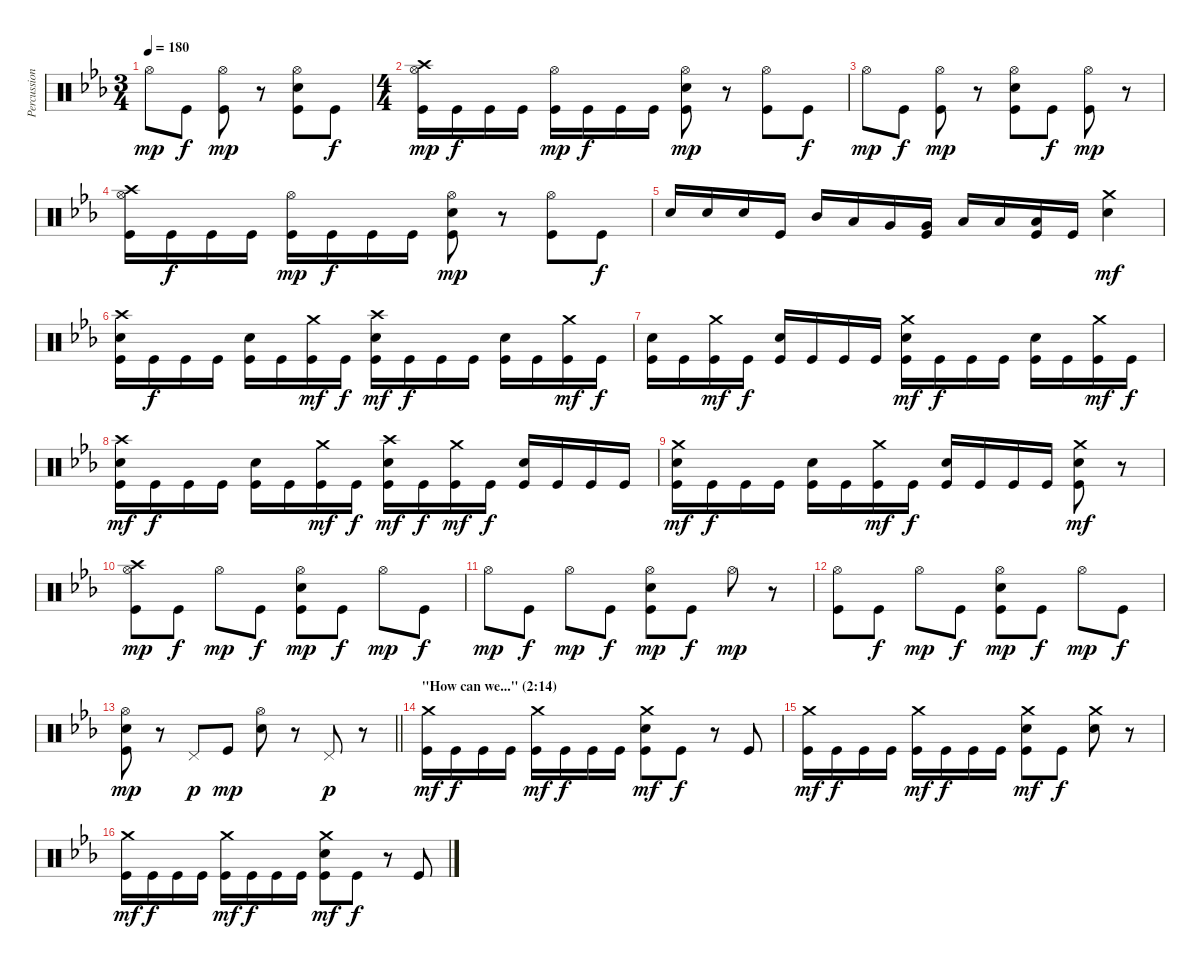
\track ("Percussion" "Percussion") {instrument percussion}
\staff {score}
\articulation defaults
\ts (3 4)
\tempo 180
\clef neutral
\ks cminor "Hi-Hat (open)".8{dy mp} "Kick (hit)".8{dy f}
("Hi-Hat (open)" "Kick (hit)").8{dy mp} r.8 ("Hi-Hat (open)" "Snare (hit) 2" "Kick (hit)").8 "Kick (hit)".8{dy f} |
\ts (4 4)
("Crash high (hit)" "Hi-Hat (open)" "Kick (hit)").16{dy mp} "Kick (hit)".16{dy f} "Kick (hit)".16 "Kick (hit)".16 ("Hi-Hat (open)" "Kick (hit)").16{dy mp} "Kick (hit)".16{dy f} "Kick (hit)".16 "Kick (hit)".16 ("Hi-Hat (open)" "Snare (hit) 2" "Kick (hit)").8{dy mp} r.8 ("Hi-Hat (open)" "Kick (hit)").8 "Kick (hit)".8{dy f} |
"Hi-Hat (open)".8{dy mp} "Kick (hit)".8{dy f} ("Hi-Hat (open)" "Kick (hit)").8{dy mp} r.8 ("Hi-Hat (open)" "Snare (hit) 2" "Kick (hit)").8 "Kick (hit)".8{dy f} ("Hi-Hat (open)" "Kick (hit)").8{dy mp} r.8 |
("Crash high (hit)" "Hi-Hat (open)" "Kick (hit)").16 "Kick (hit)".16{dy f} "Kick (hit)".16 "Kick (hit)".16 ("Hi-Hat (open)" "Kick (hit)").16{dy mp} "Kick (hit)".16{dy f} "Kick (hit)".16 "Kick (hit)".16 ("Hi-Hat (open)" "Snare (hit) 2" "Kick (hit)").8{dy mp} r.8 ("Hi-Hat (open)" "Kick (hit)").8 "Kick (hit)".8{dy f} |
"Snare (hit) 2".16 "Snare (hit) 2".16 "Snare (hit) 2".16 "Kick (hit)".16 "Mid Tom (hit)".16 "Low Tom (hit)".16 "Very Low Tom (hit)".16 ("Very Low Tom (hit)" "Kick (hit)").16 "Low Floor Tom (hit)".16 "Low Floor Tom (hit)".16 ("Low Floor Tom (hit)" "Kick (hit)").16 "Kick (hit)".16 ("Crash medium (hit)" "Snare (hit) 2").4{dy mf} |
("Crash high (hit)" "Snare (hit) 2" "Kick (hit)").16 "Kick (hit)".16{dy f} "Kick (hit)".16 "Kick (hit)".16 ("Snare (hit) 2" "Kick (hit)").16 "Kick (hit)".16 ("Crash medium (hit)" "Kick (hit)").16{dy mf} "Kick (hit)".16{dy f} ("Crash high (hit)" "Snare (hit) 2" "Kick (hit)").16{dy mf} "Kick (hit)".16{dy f} "Kick (hit)".16 "Kick (hit)".16 ("Snare (hit) 2" "Kick (hit)").16 "Kick (hit)".16 ("Crash medium (hit)" "Kick (hit)").16{dy mf} "Kick (hit)".16{dy f} |
("Snare (hit) 2" "Kick (hit)").16 "Kick (hit)".16 ("Crash medium (hit)" "Kick (hit)").16{dy mf} "Kick (hit)".16{dy f} ("Snare (hit) 2" "Kick (hit)").16 "Kick (hit)".16 "Kick (hit)".16 "Kick (hit)".16 ("Crash medium (hit)" "Snare (hit) 2" "Kick (hit)").16{dy mf} "Kick (hit)".16{dy f} "Kick (hit)".16 "Kick (hit)".16 ("Snare (hit) 2" "Kick (hit)").16 "Kick (hit)".16 ("Crash medium (hit)" "Kick (hit)").16{dy mf} "Kick (hit)".16{dy f} |
("Crash high (hit)" "Snare (hit) 2" "Kick (hit)").16{dy mf} "Kick (hit)".16{dy f} "Kick (hit)".16 "Kick (hit)".16 ("Snare (hit) 2" "Kick (hit)").16 "Kick (hit)".16 ("Crash medium (hit)" "Kick (hit)").16{dy mf} "Kick (hit)".16{dy f} ("Crash high (hit)" "Snare (hit) 2" "Kick (hit)").16{dy mf} "Kick (hit)".16{dy f} ("Crash medium (hit)" "Kick (hit)").16{dy mf} "Kick (hit)".16{dy f} ("Snare (hit) 2" "Kick (hit)").16 "Kick (hit)".16 "Kick (hit)".16 "Kick (hit)".16 |
("Crash medium (hit)" "Snare (hit) 2" "Kick (hit)").16{dy mf} "Kick (hit)".16{dy f} "Kick (hit)".16 "Kick (hit)".16 ("Snare (hit) 2" "Kick (hit)").16 "Kick (hit)".16 ("Crash medium (hit)" "Kick (hit)").16{dy mf} "Kick (hit)".16{dy f} ("Snare (hit) 2" "Kick (hit)").16 "Kick (hit)".16 "Kick (hit)".16 "Kick (hit)".16 ("Crash medium (hit)" "Snare (hit) 2" "Kick (hit)").8{dy mf} r.8 |
("Crash high (hit)" "Hi-Hat (open)" "Kick (hit)").8{dy mp} "Kick (hit)".8{dy f} "Hi-Hat (open)".8{dy mp} "Kick (hit)".8{dy f} ("Hi-Hat (open)" "Snare (hit) 2" "Kick (hit)").8{dy mp} "Kick (hit)".8{dy f} "Hi-Hat (open)".8{dy mp} "Kick (hit)".8{dy f} |
"Hi-Hat (open)".8{dy mp} "Kick (hit)".8{dy f} "Hi-Hat (open)".8{dy mp} "Kick (hit)".8{dy f} ("Hi-Hat (open)" "Snare (hit) 2" "Kick (hit)").8{dy mp} "Kick (hit)".8{dy f} "Hi-Hat (open)".8{dy mp} r.8 |
("Hi-Hat (open)" "Kick (hit)").8 "Kick (hit)".8{dy f} "Hi-Hat (open)".8{dy mp} "Kick (hit)".8{dy f} ("Hi-Hat (open)" "Snare (hit) 2" "Kick (hit)").8{dy mp} "Kick (hit)".8{dy f} "Hi-Hat (open)".8{dy mp} "Kick (hit)".8{dy f} |
\barLineRight lightlight
("Hi-Hat (open)" "Snare (hit) 2" "Kick (hit)").8{dy mp} r.8 "Pedal Hi-Hat (hit)".8{dy p} "Kick (hit)".8{dy mp} ("Hi-Hat (open)" "Snare (hit) 2").8 r.8 "Pedal Hi-Hat (hit)".8{dy p} r.8 |
\section ("" "\"How can we...\" (2:14)")
("Crash medium (hit)" "Kick (hit)").16{dy mf} "Kick (hit)".16{dy f} "Kick (hit)".16 "Kick (hit)".16 ("Crash medium (hit)" "Kick (hit)").16{dy mf} "Kick (hit)".16{dy f} "Kick (hit)".16 "Kick (hit)".16 ("Crash medium (hit)" "Snare (hit) 2" "Kick (hit)").8{dy mf} "Kick (hit)".8{dy f} r.8 "Kick (hit)".8 |
("Crash medium (hit)" "Kick (hit)").16{dy mf} "Kick (hit)".16{dy f} "Kick (hit)".16 "Kick (hit)".16 ("Crash medium (hit)" "Kick (hit)").16{dy mf} "Kick (hit)".16{dy f} "Kick (hit)".16 "Kick (hit)".16 ("Crash medium (hit)" "Snare (hit) 2" "Kick (hit)").8{dy mf} "Kick (hit)".8{dy f} ("Crash medium (hit)" "Snare (hit) 2").8 r.8 |
("Crash medium (hit)" "Kick (hit)").16{dy mf} "Kick (hit)".16{dy f} "Kick (hit)".16 "Kick (hit)".16 ("Crash medium (hit)" "Kick (hit)").16{dy mf} "Kick (hit)".16{dy f} "Kick (hit)".16 "Kick (hit)".16 ("Crash medium (hit)" "Snare (hit) 2" "Kick (hit)").8{dy mf} "Kick (hit)".8{dy f} r.8 "Kick (hit)".8
